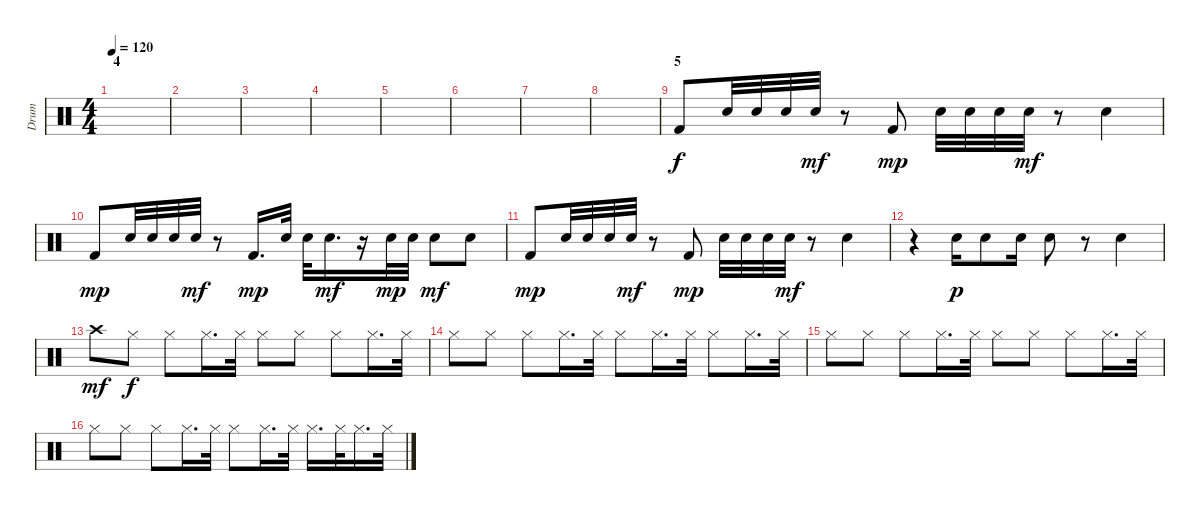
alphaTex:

\track ("Drum" "Drum") {instrument percussion}
\staff {score}
\articulation defaults
\ts (4 4)
\section ("" "4")
\tempo 120
\clef neutral
\ks c
|
|
|
|
|
|
|
|
\section ("" "5")
"Kick (hit) 2".8 "Electric Snare (hit)".32 "Electric Snare (hit)".32 "Electric Snare (hit)".32 "Electric Snare (hit)".32{dy mf} r.8 "Kick (hit) 2".8{dy mp} "Electric Snare (hit)".32 "Electric Snare (hit)".32 "Electric Snare (hit)".32 "Electric Snare (hit)".32{dy mf} r.8 "Electric Snare (hit)".4 |
"Kick (hit) 2".8{dy mp} "Electric Snare (hit)".32 "Electric Snare (hit)".32 "Electric Snare (hit)".32 "Electric Snare (hit)".32{dy mf} r.8 "Kick (hit) 2".16{d dy mp} "Electric Snare (hit)".32 "Electric Snare (hit)".32 "Electric Snare (hit)".16{d dy mf} r.16 "Electric Snare (hit)".32{dy mp} "Electric Snare (hit)".32 "Electric Snare (hit)".8{dy mf} "Electric Snare (hit)".8 |
"Kick (hit) 2".8{dy mp} "Electric Snare (hit)".32 "Electric Snare (hit)".32 "Electric Snare (hit)".32 "Electric Snare (hit)".32{dy mf} r.8 "Kick (hit) 2".8{dy mp} "Electric Snare (hit)".32 "Electric Snare (hit)".32 "Electric Snare (hit)".32 "Electric Snare (hit)".32{dy mf} r.8 "Electric Snare (hit)".4 |
r.4 "Snare (hit) 2".16{dy p} "Snare (hit) 2".8 "Snare (hit) 2".16 "Snare (hit) 2".8 r.8 "Snare (hit) 2".4 |
"Crash high (hit)".8{dy mf} "Hi-Hat (closed)".8{dy f} "Hi-Hat (closed)".8 "Hi-Hat (closed)".16{d} "Hi-Hat (closed)".32 "Hi-Hat (closed)".8 "Hi-Hat (closed)".8 "Hi-Hat (closed)".8 "Hi-Hat (closed)".16{d} "Hi-Hat (closed)".32 |
"Hi-Hat (closed)".8 "Hi-Hat (closed)".8 "Hi-Hat (closed)".8 "Hi-Hat (closed)".16{d} "Hi-Hat (closed)".32 "Hi-Hat (closed)".8 "Hi-Hat (closed)".16{d} "Hi-Hat (closed)".32 "Hi-Hat (closed)".8 "Hi-Hat (closed)".16{d} "Hi-Hat (closed)".32 |
"Hi-Hat (closed)".8 "Hi-Hat (closed)".8 "Hi-Hat (closed)".8 "Hi-Hat (closed)".16{d} "Hi-Hat (closed)".32 "Hi-Hat (closed)".8 "Hi-Hat (closed)".8 "Hi-Hat (closed)".8 "Hi-Hat (closed)".16{d} "Hi-Hat (closed)".32 |
"Hi-Hat (closed)".8 "Hi-Hat (closed)".8 "Hi-Hat (closed)".8 "Hi-Hat (closed)".16{d} "Hi-Hat (closed)".32 "Hi-Hat (closed)".8 "Hi-Hat (closed)".16{d} "Hi-Hat (closed)".32 "Hi-Hat (closed)".16{d} "Hi-Hat (closed)".32 "Hi-Hat (closed)".16{d} "Hi-Hat (closed)".32
